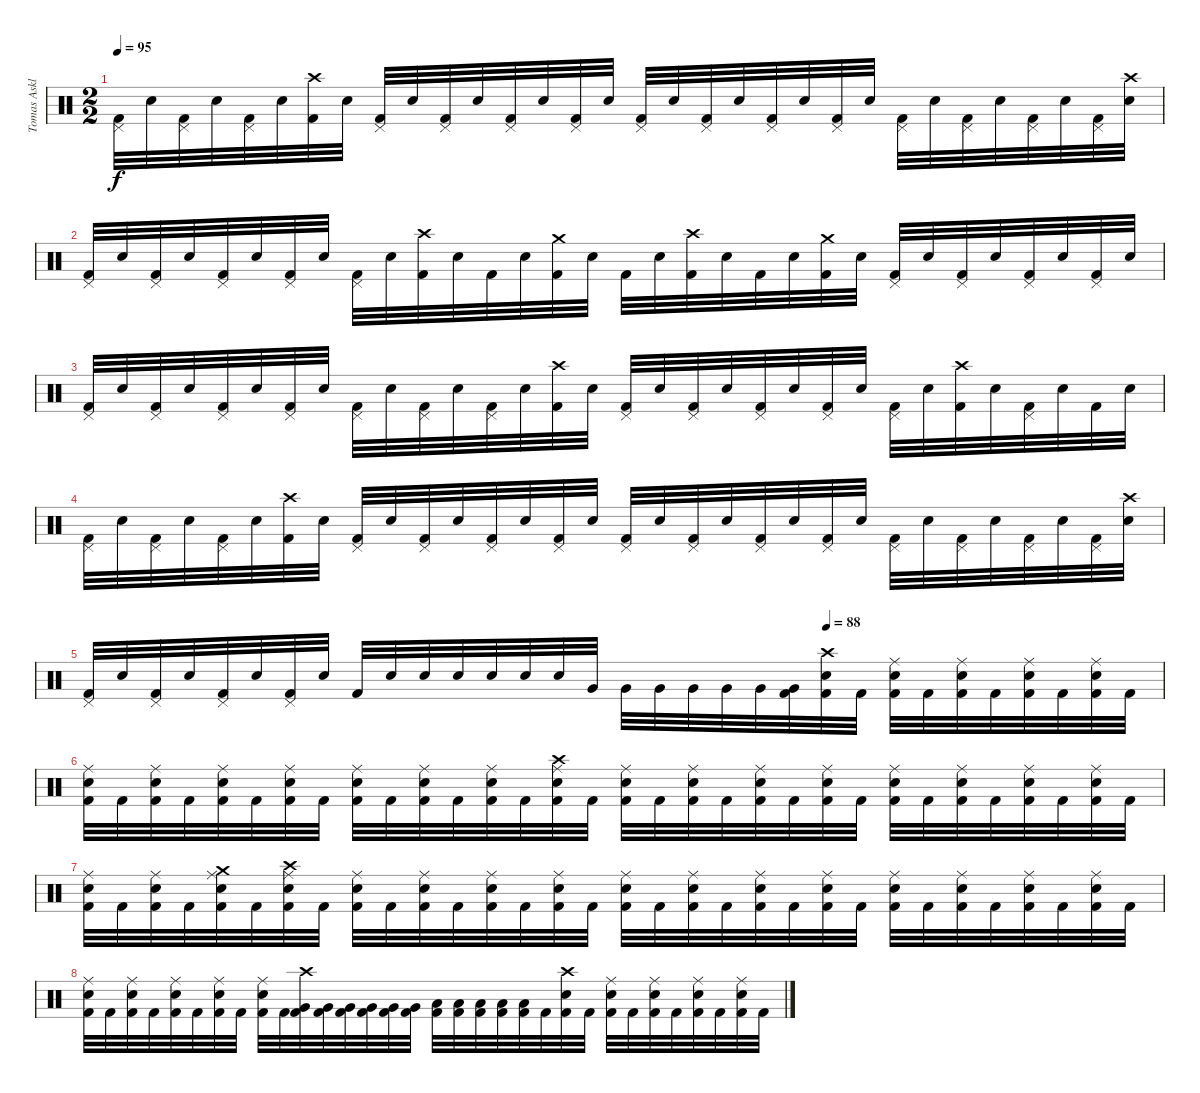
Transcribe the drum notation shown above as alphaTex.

\track ("Tomas Asklund" "Tomas Askl") {instrument percussion}
\staff {score}
\articulation defaults
\ts (2 2)
\tempo 95
\clef neutral
\ks c
("Pedal Hi-Hat (hit)" "Kick (hit) 2").32{dy f} "Snare (hit) 2".32 ("Pedal Hi-Hat (hit)" "Kick (hit) 2").32 "Snare (hit) 2".32 ("Pedal Hi-Hat (hit)" "Kick (hit) 2").32 "Snare (hit) 2".32 ("Crash high (hit)" "Kick (hit) 2").32 "Snare (hit) 2".32 ("Pedal Hi-Hat (hit)" "Kick (hit) 2").32 "Snare (hit) 2".32 ("Pedal Hi-Hat (hit)" "Kick (hit) 2").32 "Snare (hit) 2".32 ("Pedal Hi-Hat (hit)" "Kick (hit) 2").32 "Snare (hit) 2".32 ("Pedal Hi-Hat (hit)" "Kick (hit) 2").32 "Snare (hit) 2".32 ("Pedal Hi-Hat (hit)" "Kick (hit) 2").32 "Snare (hit) 2".32 ("Pedal Hi-Hat (hit)" "Kick (hit) 2").32 "Snare (hit) 2".32 ("Pedal Hi-Hat (hit)" "Kick (hit) 2").32 "Snare (hit) 2".32 ("Pedal Hi-Hat (hit)" "Kick (hit) 2").32 "Snare (hit) 2".32 ("Pedal Hi-Hat (hit)" "Kick (hit) 2").32 "Snare (hit) 2".32 ("Pedal Hi-Hat (hit)" "Kick (hit) 2").32 "Snare (hit) 2".32 ("Pedal Hi-Hat (hit)" "Kick (hit) 2").32 "Snare (hit) 2".32 ("Pedal Hi-Hat (hit)" "Kick (hit) 2").32 ("Crash high (hit)" "Snare (hit) 2").32 |
("Pedal Hi-Hat (hit)" "Kick (hit) 2").32 "Snare (hit) 2".32 ("Pedal Hi-Hat (hit)" "Kick (hit) 2").32 "Snare (hit) 2".32 ("Pedal Hi-Hat (hit)" "Kick (hit) 2").32 "Snare (hit) 2".32 ("Pedal Hi-Hat (hit)" "Kick (hit) 2").32 "Snare (hit) 2".32 ("Pedal Hi-Hat (hit)" "Kick (hit) 2").32 "Snare (hit) 2".32 ("Crash high (hit)" "Kick (hit) 2").32 "Snare (hit) 2".32 "Kick (hit) 2".32 "Snare (hit) 2".32 ("Crash medium (hit)" "Kick (hit) 2").32 "Snare (hit) 2".32 "Kick (hit) 2".32 "Snare (hit) 2".32 ("Crash high (hit)" "Kick (hit) 2").32 "Snare (hit) 2".32 "Kick (hit) 2".32 "Snare (hit) 2".32 ("Crash medium (hit)" "Kick (hit) 2").32 "Snare (hit) 2".32 ("Pedal Hi-Hat (hit)" "Kick (hit) 2").32 "Snare (hit) 2".32 ("Pedal Hi-Hat (hit)" "Kick (hit) 2").32 "Snare (hit) 2".32 ("Pedal Hi-Hat (hit)" "Kick (hit) 2").32 "Snare (hit) 2".32 ("Pedal Hi-Hat (hit)" "Kick (hit) 2").32 "Snare (hit) 2".32 |
("Pedal Hi-Hat (hit)" "Kick (hit) 2").32 "Snare (hit) 2".32 ("Pedal Hi-Hat (hit)" "Kick (hit) 2").32 "Snare (hit) 2".32 ("Pedal Hi-Hat (hit)" "Kick (hit) 2").32 "Snare (hit) 2".32 ("Pedal Hi-Hat (hit)" "Kick (hit) 2").32 "Snare (hit) 2".32 ("Pedal Hi-Hat (hit)" "Kick (hit) 2").32 "Snare (hit) 2".32 ("Pedal Hi-Hat (hit)" "Kick (hit) 2").32 "Snare (hit) 2".32 ("Pedal Hi-Hat (hit)" "Kick (hit) 2").32 "Snare (hit) 2".32 ("Crash high (hit)" "Kick (hit) 2").32 "Snare (hit) 2".32 ("Pedal Hi-Hat (hit)" "Kick (hit) 2").32 "Snare (hit) 2".32 ("Pedal Hi-Hat (hit)" "Kick (hit) 2").32 "Snare (hit) 2".32 ("Pedal Hi-Hat (hit)" "Kick (hit) 2").32 "Snare (hit) 2".32 ("Pedal Hi-Hat (hit)" "Kick (hit) 2").32 "Snare (hit) 2".32 ("Pedal Hi-Hat (hit)" "Kick (hit) 2").32 "Snare (hit) 2".32 ("Crash high (hit)" "Kick (hit) 2").32 "Snare (hit) 2".32 ("Pedal Hi-Hat (hit)" "Kick (hit) 2").32 "Snare (hit) 2".32 "Kick (hit) 2".32 "Snare (hit) 2".32 |
("Pedal Hi-Hat (hit)" "Kick (hit) 2").32 "Snare (hit) 2".32 ("Pedal Hi-Hat (hit)" "Kick (hit) 2").32 "Snare (hit) 2".32 ("Pedal Hi-Hat (hit)" "Kick (hit) 2").32 "Snare (hit) 2".32 ("Crash high (hit)" "Kick (hit) 2").32 "Snare (hit) 2".32 ("Pedal Hi-Hat (hit)" "Kick (hit) 2").32 "Snare (hit) 2".32 ("Pedal Hi-Hat (hit)" "Kick (hit) 2").32 "Snare (hit) 2".32 ("Pedal Hi-Hat (hit)" "Kick (hit) 2").32 "Snare (hit) 2".32 ("Pedal Hi-Hat (hit)" "Kick (hit) 2").32 "Snare (hit) 2".32 ("Pedal Hi-Hat (hit)" "Kick (hit) 2").32 "Snare (hit) 2".32 ("Pedal Hi-Hat (hit)" "Kick (hit) 2").32 "Snare (hit) 2".32 ("Pedal Hi-Hat (hit)" "Kick (hit) 2").32 "Snare (hit) 2".32 ("Pedal Hi-Hat (hit)" "Kick (hit) 2").32 "Snare (hit) 2".32 ("Pedal Hi-Hat (hit)" "Kick (hit) 2").32 "Snare (hit) 2".32 ("Pedal Hi-Hat (hit)" "Kick (hit) 2").32 "Snare (hit) 2".32 ("Pedal Hi-Hat (hit)" "Kick (hit) 2").32 "Snare (hit) 2".32 ("Pedal Hi-Hat (hit)" "Kick (hit) 2").32 ("Crash high (hit)" "Snare (hit) 2").32 |
\tempo (88 0.6875)
("Pedal Hi-Hat (hit)" "Kick (hit) 2").32 "Snare (hit) 2".32 ("Pedal Hi-Hat (hit)" "Kick (hit) 2").32 "Snare (hit) 2".32 ("Pedal Hi-Hat (hit)" "Kick (hit) 2").32 "Snare (hit) 2".32 ("Pedal Hi-Hat (hit)" "Kick (hit) 2").32 "Snare (hit) 2".32 "Kick (hit) 2".32 "Snare (hit) 2".32 "Snare (hit) 2".32 "Snare (hit) 2".32 "Snare (hit) 2".32 "Snare (hit) 2".32 "Snare (hit) 2".32 "Very Low Tom (hit)".32 "Very Low Tom (hit)".32 "Very Low Tom (hit)".32 "Very Low Tom (hit)".32 "Very Low Tom (hit)".32 "Very Low Tom (hit)".32 ("Very Low Tom (hit)" "Kick (hit) 2").32 ("Crash high (hit)" "Snare (hit) 2" "Kick (hit) 2").32 "Kick (hit) 2".32 ("Ride (middle)" "Snare (hit) 2" "Kick (hit) 2").32 "Kick (hit) 2".32 ("Ride (middle)" "Snare (hit) 2" "Kick (hit) 2").32 "Kick (hit) 2".32 ("Ride (middle)" "Snare (hit) 2" "Kick (hit) 2").32 "Kick (hit) 2".32 ("Ride (middle)" "Snare (hit) 2" "Kick (hit) 2").32 "Kick (hit) 2".32 |
("Ride (middle)" "Snare (hit) 2" "Kick (hit) 2").32 "Kick (hit) 2".32 ("Ride (middle)" "Snare (hit) 2" "Kick (hit) 2").32 "Kick (hit) 2".32 ("Ride (middle)" "Snare (hit) 2" "Kick (hit) 2").32 "Kick (hit) 2".32 ("Ride (middle)" "Snare (hit) 2" "Kick (hit) 2").32 "Kick (hit) 2".32 ("Ride (middle)" "Snare (hit) 2" "Kick (hit) 2").32 "Kick (hit) 2".32 ("Ride (middle)" "Snare (hit) 2" "Kick (hit) 2").32 "Kick (hit) 2".32 ("Ride (middle)" "Snare (hit) 2" "Kick (hit) 2").32 "Kick (hit) 2".32 ("Crash high (hit)" "Ride (middle)" "Snare (hit) 2" "Kick (hit) 2").32 "Kick (hit) 2".32 ("Ride (middle)" "Snare (hit) 2" "Kick (hit) 2").32 "Kick (hit) 2".32 ("Ride (middle)" "Snare (hit) 2" "Kick (hit) 2").32 "Kick (hit) 2".32 ("Ride (middle)" "Snare (hit) 2" "Kick (hit) 2").32 "Kick (hit) 2".32 ("Ride (middle)" "Snare (hit) 2" "Kick (hit) 2").32 "Kick (hit) 2".32 ("Ride (middle)" "Snare (hit) 2" "Kick (hit) 2").32 "Kick (hit) 2".32 ("Ride (middle)" "Snare (hit) 2" "Kick (hit) 2").32 "Kick (hit) 2".32 ("Ride (middle)" "Snare (hit) 2" "Kick (hit) 2").32 "Kick (hit) 2".32 ("Ride (middle)" "Snare (hit) 2" "Kick (hit) 2").32 "Kick (hit) 2".32 |
("Ride (middle)" "Snare (hit) 2" "Kick (hit) 2").32 "Kick (hit) 2".32 ("Ride (middle)" "Snare (hit) 2" "Kick (hit) 2").32 "Kick (hit) 2".32 ("Crash medium (hit)" "Ride (middle)" "Snare (hit) 2" "Kick (hit) 2").32 "Kick (hit) 2".32 ("Crash high (hit)" "Ride (middle)" "Snare (hit) 2" "Kick (hit) 2").32 "Kick (hit) 2".32 ("Ride (middle)" "Snare (hit) 2" "Kick (hit) 2").32 "Kick (hit) 2".32 ("Ride (middle)" "Snare (hit) 2" "Kick (hit) 2").32 "Kick (hit) 2".32 ("Ride (middle)" "Snare (hit) 2" "Kick (hit) 2").32 "Kick (hit) 2".32 ("Ride (middle)" "Snare (hit) 2" "Kick (hit) 2").32 "Kick (hit) 2".32 ("Ride (middle)" "Snare (hit) 2" "Kick (hit) 2").32 "Kick (hit) 2".32 ("Ride (middle)" "Snare (hit) 2" "Kick (hit) 2").32 "Kick (hit) 2".32 ("Ride (middle)" "Snare (hit) 2" "Kick (hit) 2").32 "Kick (hit) 2".32 ("Ride (middle)" "Snare (hit) 2" "Kick (hit) 2").32 "Kick (hit) 2".32 ("Ride (middle)" "Snare (hit) 2" "Kick (hit) 2").32 "Kick (hit) 2".32 ("Ride (middle)" "Snare (hit) 2" "Kick (hit) 2").32 "Kick (hit) 2".32 ("Ride (middle)" "Snare (hit) 2" "Kick (hit) 2").32 "Kick (hit) 2".32 ("Ride (middle)" "Snare (hit) 2" "Kick (hit) 2").32 "Kick (hit) 2".32 |
("Ride (middle)" "Snare (hit) 2" "Kick (hit) 2").32 "Kick (hit) 2".32 ("Ride (middle)" "Snare (hit) 2" "Kick (hit) 2").32 "Kick (hit) 2".32 ("Ride (middle)" "Snare (hit) 2" "Kick (hit) 2").32 "Kick (hit) 2".32 ("Ride (middle)" "Snare (hit) 2" "Kick (hit) 2").32 "Kick (hit) 2".32 ("Ride (middle)" "Snare (hit) 2" "Kick (hit) 2").32 "Kick (hit) 2".32 ("Crash high (hit)" "Very Low Tom (hit)" "Kick (hit) 2").32 ("Very Low Tom (hit)" "Kick (hit) 2").32 ("Very Low Tom (hit)" "Kick (hit) 2").32 ("Very Low Tom (hit)" "Kick (hit) 2").32 ("Very Low Tom (hit)" "Kick (hit) 2").32 ("Very Low Tom (hit)" "Kick (hit) 2").32 ("Low Tom (hit)" "Kick (hit) 2").32 ("Low Tom (hit)" "Kick (hit) 2").32 ("Low Tom (hit)" "Kick (hit) 2").32 ("Low Tom (hit)" "Kick (hit) 2").32 ("Low Tom (hit)" "Kick (hit) 2").32 "Kick (hit) 2".32 ("Crash high (hit)" "Snare (hit) 2" "Kick (hit) 2").32 "Kick (hit) 2".32 ("Ride (middle)" "Snare (hit) 2" "Kick (hit) 2").32 "Kick (hit) 2".32 ("Ride (middle)" "Snare (hit) 2" "Kick (hit) 2").32 "Kick (hit) 2".32 ("Ride (middle)" "Snare (hit) 2" "Kick (hit) 2").32 "Kick (hit) 2".32 ("Ride (middle)" "Snare (hit) 2" "Kick (hit) 2").32 "Kick (hit) 2".32
